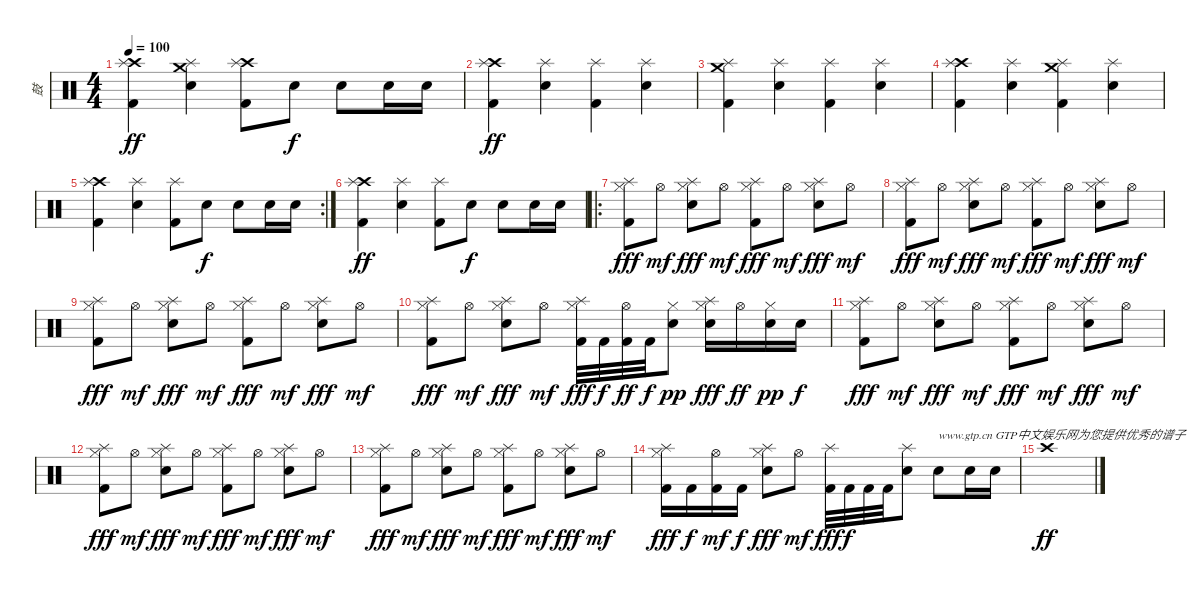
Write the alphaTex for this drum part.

\track ("鼓" "鼓") {instrument percussion}
\staff {score}
\articulation defaults
\ts (4 4)
\tempo 100
\clef neutral
\ks c
("Crash high (hit)" "Splash (hit)" "Kick (hit) 2").4{dy ff} ("Crash medium (hit)" "Splash (hit)" "Snare (hit) 2").4 ("Crash high (hit)" "Splash (hit)" "Kick (hit) 2").8 "Snare (hit) 2".8{dy f} "Snare (hit) 2".8 "Snare (hit) 2".16 "Snare (hit) 2".16 |
("Crash high (hit)" "Splash (hit)" "Kick (hit) 2").4{dy ff} ("Splash (hit)" "Snare (hit) 2").4 ("Splash (hit)" "Kick (hit) 2").4 ("Splash (hit)" "Snare (hit) 2").4 |
("Crash medium (hit)" "Splash (hit)" "Kick (hit) 2").4 ("Splash (hit)" "Snare (hit) 2").4 ("Splash (hit)" "Kick (hit) 2").4 ("Splash (hit)" "Snare (hit) 2").4 |
("Crash high (hit)" "Splash (hit)" "Kick (hit) 2").4 ("Splash (hit)" "Snare (hit) 2").4 ("Crash medium (hit)" "Splash (hit)" "Kick (hit) 2").4 ("Splash (hit)" "Snare (hit) 2").4 |
\rc 2
("Crash high (hit)" "Splash (hit)" "Kick (hit) 2").4 ("Splash (hit)" "Snare (hit) 2").4 ("Splash (hit)" "Kick (hit) 2").8 "Snare (hit) 2".8{dy f} "Snare (hit) 2".8 "Snare (hit) 2".16 "Snare (hit) 2".16 |
("Crash high (hit)" "Splash (hit)" "Kick (hit) 2").4{dy ff} ("Splash (hit)" "Snare (hit) 2").4 ("Splash (hit)" "Kick (hit) 2").8 "Snare (hit) 2".8{dy f} "Snare (hit) 2".8 "Snare (hit) 2".16 "Snare (hit) 2".16 |
\ro
("Hi-Hat (closed)" "Splash (hit)" "Kick (hit) 2").8{dy fff} "Hi-Hat (open)".8{dy mf} ("Hi-Hat (closed)" "Splash (hit)" "Snare (hit) 2").8{dy fff} "Hi-Hat (open)".8{dy mf} ("Hi-Hat (closed)" "Splash (hit)" "Kick (hit) 2").8{dy fff} "Hi-Hat (open)".8{dy mf} ("Hi-Hat (closed)" "Splash (hit)" "Snare (hit) 2").8{dy fff} "Hi-Hat (open)".8{dy mf} |
("Hi-Hat (closed)" "Splash (hit)" "Kick (hit) 2").8{dy fff} "Hi-Hat (open)".8{dy mf} ("Hi-Hat (closed)" "Splash (hit)" "Snare (hit) 2").8{dy fff} "Hi-Hat (open)".8{dy mf} ("Hi-Hat (closed)" "Splash (hit)" "Kick (hit) 2").8{dy fff} "Hi-Hat (open)".8{dy mf} ("Hi-Hat (closed)" "Splash (hit)" "Snare (hit) 2").8{dy fff} "Hi-Hat (open)".8{dy mf} |
("Hi-Hat (closed)" "Splash (hit)" "Kick (hit) 2").8{dy fff} "Hi-Hat (open)".8{dy mf} ("Hi-Hat (closed)" "Splash (hit)" "Snare (hit) 2").8{dy fff} "Hi-Hat (open)".8{dy mf} ("Hi-Hat (closed)" "Splash (hit)" "Kick (hit) 2").8{dy fff} "Hi-Hat (open)".8{dy mf} ("Hi-Hat (closed)" "Splash (hit)" "Snare (hit) 2").8{dy fff} "Hi-Hat (open)".8{dy mf} |
("Hi-Hat (closed)" "Splash (hit)" "Kick (hit) 2").8{dy fff} "Hi-Hat (open)".8{dy mf} ("Hi-Hat (closed)" "Splash (hit)" "Snare (hit) 2").8{dy fff} "Hi-Hat (open)".8{dy mf} ("Hi-Hat (closed)" "Splash (hit)" "Kick (hit) 2").32{dy fff} "Kick (hit) 2".32{dy f} ("Hi-Hat (open)" "Kick (hit) 2").32{dy ff} "Kick (hit) 2".32{dy f} ("Hi-Hat (closed)" "Snare (hit) 2").8{dy pp} ("Hi-Hat (closed)" "Splash (hit)" "Snare (hit) 2").16{dy fff} "Hi-Hat (open)".16{dy ff} ("Hi-Hat (closed)" "Snare (hit) 2").16{dy pp} "Snare (hit) 2".16{dy f} |
("Hi-Hat (closed)" "Splash (hit)" "Kick (hit) 2").8{dy fff} "Hi-Hat (open)".8{dy mf} ("Hi-Hat (closed)" "Splash (hit)" "Snare (hit) 2").8{dy fff} "Hi-Hat (open)".8{dy mf} ("Hi-Hat (closed)" "Splash (hit)" "Kick (hit) 2").8{dy fff} "Hi-Hat (open)".8{dy mf} ("Hi-Hat (closed)" "Splash (hit)" "Snare (hit) 2").8{dy fff} "Hi-Hat (open)".8{dy mf} |
("Hi-Hat (closed)" "Splash (hit)" "Kick (hit) 2").8{dy fff} "Hi-Hat (open)".8{dy mf} ("Hi-Hat (closed)" "Splash (hit)" "Snare (hit) 2").8{dy fff} "Hi-Hat (open)".8{dy mf} ("Hi-Hat (closed)" "Splash (hit)" "Kick (hit) 2").8{dy fff} "Hi-Hat (open)".8{dy mf} ("Hi-Hat (closed)" "Splash (hit)" "Snare (hit) 2").8{dy fff} "Hi-Hat (open)".8{dy mf} |
("Hi-Hat (closed)" "Splash (hit)" "Kick (hit) 2").8{dy fff} "Hi-Hat (open)".8{dy mf} ("Hi-Hat (closed)" "Splash (hit)" "Snare (hit) 2").8{dy fff} "Hi-Hat (open)".8{dy mf} ("Hi-Hat (closed)" "Splash (hit)" "Kick (hit) 2").8{dy fff} "Hi-Hat (open)".8{dy mf} ("Hi-Hat (closed)" "Splash (hit)" "Snare (hit) 2").8{dy fff} "Hi-Hat (open)".8{dy mf} |
("Hi-Hat (closed)" "Splash (hit)" "Kick (hit) 2").16{dy fff} "Kick (hit) 2".16{dy f} ("Hi-Hat (open)" "Kick (hit) 2").16{dy mf} "Kick (hit) 2".16{dy f} ("Hi-Hat (closed)" "Splash (hit)" "Snare (hit) 2").8{dy fff} "Hi-Hat (open)".8{dy mf} ("Splash (hit)" "Kick (hit) 2").32{dy fff} "Kick (hit) 2".32{dy f} "Kick (hit) 2".32 "Kick (hit) 2".32 ("Splash (hit)" "Snare (hit) 2").8 "Snare (hit) 2".8{txt "www.gtp.cn GTP中文娱乐网为您提供优秀的谱子"} "Snare (hit) 2".16 "Snare (hit) 2".16 |
"Crash high (hit)".1{dy ff}
